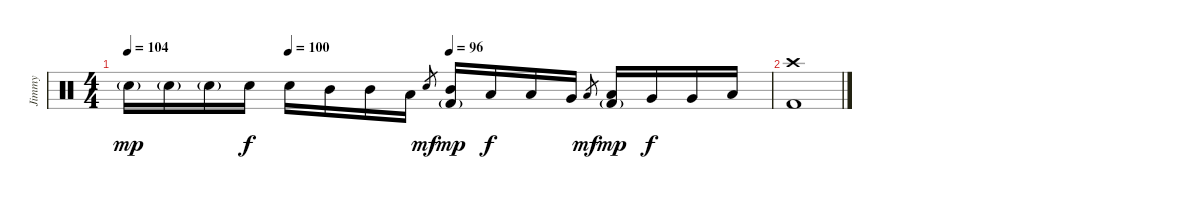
\track ("Jimmy" "Jimmy") {instrument percussion}
\staff {score}
\articulation defaults
\ts (4 4)
\tempo 104
\tempo (100 0.25)
\tempo (96 0.5)
\clef neutral
\ks c "Electric Snare (hit)"{g}.16{dy mp} "Electric Snare (hit)"{g}.16 "Electric Snare (hit)"{g}.16 "Electric Snare (hit)".16{dy f} "Electric Snare (hit)".16 "Mid Tom (hit)".16 "Mid Tom (hit)".16 "Low Tom (hit)".16 "Electric Snare (hit)".8{gr dy mf}
("Mid Tom (hit)" "Kick (hit) 2"{g}).16{dy mp} "Low Tom (hit)".16{dy f} "Low Tom (hit)".16 "Very Low Tom (hit)".16 "Low Tom (hit)".8{gr dy mf} ("Low Tom (hit)" "Kick (hit) 2"{g}).16{dy mp} "Very Low Tom (hit)".16{dy f} "Very Low Tom (hit)".16 "Low Floor Tom (hit)".16 |
("Crash high (hit)" "Kick (hit) 2").1
